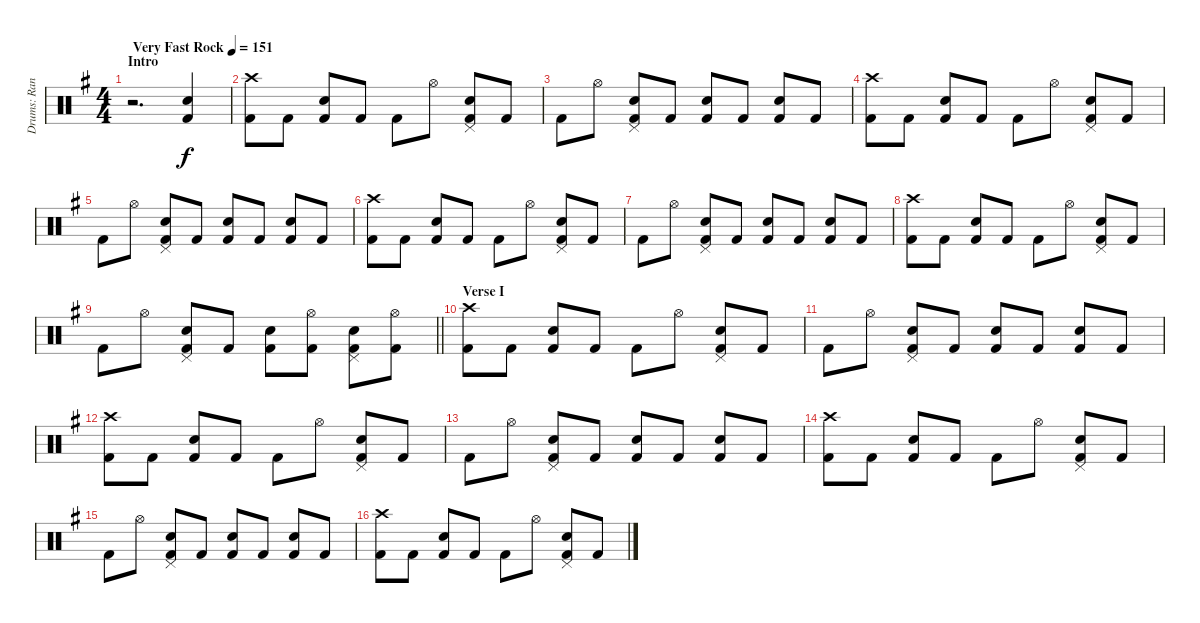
\track ("Drums: Randy" "Drums: Ran") {instrument percussion}
\staff {score}
\articulation defaults
\ts (4 4)
\section ("" "Intro")
\tempo (151 "Very Fast Rock")
\clef neutral
\ks g
r.2{d dy f} ("Snare (hit) 2" "Kick (hit) 2").4 |
("Crash high (hit)" "Kick (hit) 2").8 "Kick (hit) 2".8 ("Snare (hit) 2" "Kick (hit) 2").8 "Kick (hit) 2".8 "Kick (hit) 2".8 "Hi-Hat (open)".8 ("Pedal Hi-Hat (hit)" "Snare (hit) 2" "Kick (hit) 2").8 "Kick (hit) 2".8 |
"Kick (hit) 2".8 "Hi-Hat (open)".8 ("Pedal Hi-Hat (hit)" "Snare (hit) 2" "Kick (hit) 2").8 "Kick (hit) 2".8 ("Snare (hit) 2" "Kick (hit) 2").8 "Kick (hit) 2".8 ("Snare (hit) 2" "Kick (hit) 2").8 "Kick (hit) 2".8 |
("Crash high (hit)" "Kick (hit) 2").8 "Kick (hit) 2".8 ("Snare (hit) 2" "Kick (hit) 2").8 "Kick (hit) 2".8 "Kick (hit) 2".8 "Hi-Hat (open)".8 ("Pedal Hi-Hat (hit)" "Snare (hit) 2" "Kick (hit) 2").8 "Kick (hit) 2".8 |
"Kick (hit) 2".8 "Hi-Hat (open)".8 ("Pedal Hi-Hat (hit)" "Snare (hit) 2" "Kick (hit) 2").8 "Kick (hit) 2".8 ("Snare (hit) 2" "Kick (hit) 2").8 "Kick (hit) 2".8 ("Snare (hit) 2" "Kick (hit) 2").8 "Kick (hit) 2".8 |
("Crash high (hit)" "Kick (hit) 2").8 "Kick (hit) 2".8 ("Snare (hit) 2" "Kick (hit) 2").8 "Kick (hit) 2".8 "Kick (hit) 2".8 "Hi-Hat (open)".8 ("Pedal Hi-Hat (hit)" "Snare (hit) 2" "Kick (hit) 2").8 "Kick (hit) 2".8 |
"Kick (hit) 2".8 "Hi-Hat (open)".8 ("Pedal Hi-Hat (hit)" "Snare (hit) 2" "Kick (hit) 2").8 "Kick (hit) 2".8 ("Snare (hit) 2" "Kick (hit) 2").8 "Kick (hit) 2".8 ("Snare (hit) 2" "Kick (hit) 2").8 "Kick (hit) 2".8 |
("Crash high (hit)" "Kick (hit) 2").8 "Kick (hit) 2".8 ("Snare (hit) 2" "Kick (hit) 2").8 "Kick (hit) 2".8 "Kick (hit) 2".8 "Hi-Hat (open)".8 ("Pedal Hi-Hat (hit)" "Snare (hit) 2" "Kick (hit) 2").8 "Kick (hit) 2".8 |
\barLineRight lightlight "Kick (hit) 2".8 "Hi-Hat (open)".8
("Pedal Hi-Hat (hit)" "Snare (hit) 2" "Kick (hit) 2").8 "Kick (hit) 2".8 ("Snare (hit) 2" "Kick (hit) 2").8 ("Hi-Hat (open)" "Kick (hit) 2").8 ("Pedal Hi-Hat (hit)" "Snare (hit) 2" "Kick (hit) 2").8 ("Hi-Hat (open)" "Kick (hit) 2").8 |
\section ("" "Verse I")
("Crash high (hit)" "Kick (hit) 2").8 "Kick (hit) 2".8 ("Snare (hit) 2" "Kick (hit) 2").8 "Kick (hit) 2".8 "Kick (hit) 2".8 "Hi-Hat (open)".8 ("Pedal Hi-Hat (hit)" "Snare (hit) 2" "Kick (hit) 2").8 "Kick (hit) 2".8 |
"Kick (hit) 2".8 "Hi-Hat (open)".8 ("Pedal Hi-Hat (hit)" "Snare (hit) 2" "Kick (hit) 2").8 "Kick (hit) 2".8 ("Snare (hit) 2" "Kick (hit) 2").8 "Kick (hit) 2".8 ("Snare (hit) 2" "Kick (hit) 2").8 "Kick (hit) 2".8 |
("Crash high (hit)" "Kick (hit) 2").8 "Kick (hit) 2".8 ("Snare (hit) 2" "Kick (hit) 2").8 "Kick (hit) 2".8 "Kick (hit) 2".8 "Hi-Hat (open)".8 ("Pedal Hi-Hat (hit)" "Snare (hit) 2" "Kick (hit) 2").8 "Kick (hit) 2".8 |
"Kick (hit) 2".8 "Hi-Hat (open)".8 ("Pedal Hi-Hat (hit)" "Snare (hit) 2" "Kick (hit) 2").8 "Kick (hit) 2".8 ("Snare (hit) 2" "Kick (hit) 2").8 "Kick (hit) 2".8 ("Snare (hit) 2" "Kick (hit) 2").8 "Kick (hit) 2".8 |
("Crash high (hit)" "Kick (hit) 2").8 "Kick (hit) 2".8 ("Snare (hit) 2" "Kick (hit) 2").8 "Kick (hit) 2".8 "Kick (hit) 2".8 "Hi-Hat (open)".8 ("Pedal Hi-Hat (hit)" "Snare (hit) 2" "Kick (hit) 2").8 "Kick (hit) 2".8 |
"Kick (hit) 2".8 "Hi-Hat (open)".8 ("Pedal Hi-Hat (hit)" "Snare (hit) 2" "Kick (hit) 2").8 "Kick (hit) 2".8 ("Snare (hit) 2" "Kick (hit) 2").8 "Kick (hit) 2".8 ("Snare (hit) 2" "Kick (hit) 2").8 "Kick (hit) 2".8 |
("Crash high (hit)" "Kick (hit) 2").8 "Kick (hit) 2".8 ("Snare (hit) 2" "Kick (hit) 2").8 "Kick (hit) 2".8 "Kick (hit) 2".8 "Hi-Hat (open)".8 ("Pedal Hi-Hat (hit)" "Snare (hit) 2" "Kick (hit) 2").8 "Kick (hit) 2".8
